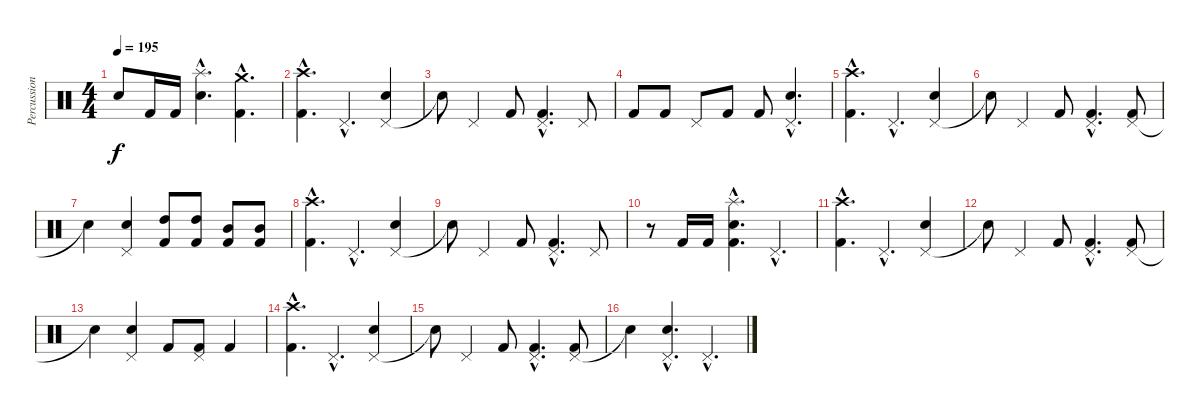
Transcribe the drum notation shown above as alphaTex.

\track ("Percussion" "Percussion") {instrument percussion}
\staff {score}
\articulation defaults
\ts (4 4)
\tempo 195
\clef neutral
\ks c "Snare (hit)"{t}.8{dy f} "Kick (hit) 2".16 "Kick (hit) 2".16
("Splash (hit)"{hac} "Snare (hit) 2"{hac}).4{d} ("Crash medium (hit)"{hac} "Kick (hit) 2"{hac}).4{d} |
("Crash high (hit)"{hac} "Kick (hit) 2"{hac}).4{d} "Pedal Hi-Hat (hit)"{hac}.4{d} ("Pedal Hi-Hat (hit)" "Snare (hit) 2").4 |
"Snare (hit)"{t}.8 "Pedal Hi-Hat (hit)".4 "Kick (hit) 2".8 ("Pedal Hi-Hat (hit)"{hac} "Kick (hit) 2"{hac}).4{d} "Pedal Hi-Hat (hit)".8 |
"Kick (hit) 2".8 "Kick (hit) 2".8 "Pedal Hi-Hat (hit)".8 "Kick (hit) 2".8 "Kick (hit) 2".8 ("Pedal Hi-Hat (hit)"{hac} "Snare (hit) 2"{hac}).4{d} |
("Crash high (hit)"{hac} "Kick (hit) 2"{hac}).4{d} "Pedal Hi-Hat (hit)"{hac}.4{d} ("Pedal Hi-Hat (hit)" "Snare (hit) 2").4 |
"Snare (hit)"{t}.8 "Pedal Hi-Hat (hit)".4 "Kick (hit) 2".8 ("Pedal Hi-Hat (hit)"{hac} "Kick (hit) 2"{hac}).4{d} ("Pedal Hi-Hat (hit)" "Kick (hit) 2").8 |
"Snare (hit)"{t}.4 ("Pedal Hi-Hat (hit)" "Snare (hit) 2").4 ("High Tom (hit)" "Kick (hit) 2").8 ("High Tom (hit)" "Kick (hit) 2").8 ("Mid Tom (hit)" "Kick (hit) 2").8 ("Mid Tom (hit)" "Kick (hit) 2").8 |
("Crash high (hit)"{hac} "Kick (hit) 2"{hac}).4{d} "Pedal Hi-Hat (hit)"{hac}.4{d} ("Pedal Hi-Hat (hit)" "Snare (hit) 2").4 |
"Snare (hit)"{t}.8 "Pedal Hi-Hat (hit)".4 "Kick (hit) 2".8 ("Pedal Hi-Hat (hit)"{hac} "Kick (hit) 2"{hac}).4{d} "Pedal Hi-Hat (hit)".8 |
r.8 "Kick (hit) 2".16 "Kick (hit) 2".16 ("Splash (hit)"{hac} "Snare (hit) 2"{hac} "Kick (hit) 2"{hac}).4{d} "Pedal Hi-Hat (hit)"{hac}.4{d} |
("Crash high (hit)"{hac} "Kick (hit) 2"{hac}).4{d} "Pedal Hi-Hat (hit)"{hac}.4{d} ("Pedal Hi-Hat (hit)" "Snare (hit) 2").4 |
"Snare (hit)"{t}.8 "Pedal Hi-Hat (hit)".4 "Kick (hit) 2".8 ("Pedal Hi-Hat (hit)"{hac} "Kick (hit) 2"{hac}).4{d} ("Pedal Hi-Hat (hit)" "Kick (hit) 2").8 |
"Snare (hit)"{t}.4 ("Pedal Hi-Hat (hit)" "Snare (hit) 2").4 "Kick (hit) 2".8 ("Pedal Hi-Hat (hit)" "Kick (hit) 2").8 "Kick (hit) 2".4 |
("Crash high (hit)"{hac} "Kick (hit) 2"{hac}).4{d} "Pedal Hi-Hat (hit)"{hac}.4{d} ("Pedal Hi-Hat (hit)" "Snare (hit) 2").4 |
"Snare (hit)"{t}.8 "Pedal Hi-Hat (hit)".4 "Kick (hit) 2".8 ("Pedal Hi-Hat (hit)"{hac} "Kick (hit) 2"{hac}).4{d} ("Pedal Hi-Hat (hit)" "Kick (hit) 2").8 |
"Snare (hit)"{t}.4 ("Pedal Hi-Hat (hit)"{hac} "Snare (hit) 2"{hac}).4{d} "Pedal Hi-Hat (hit)"{hac}.4{d}
